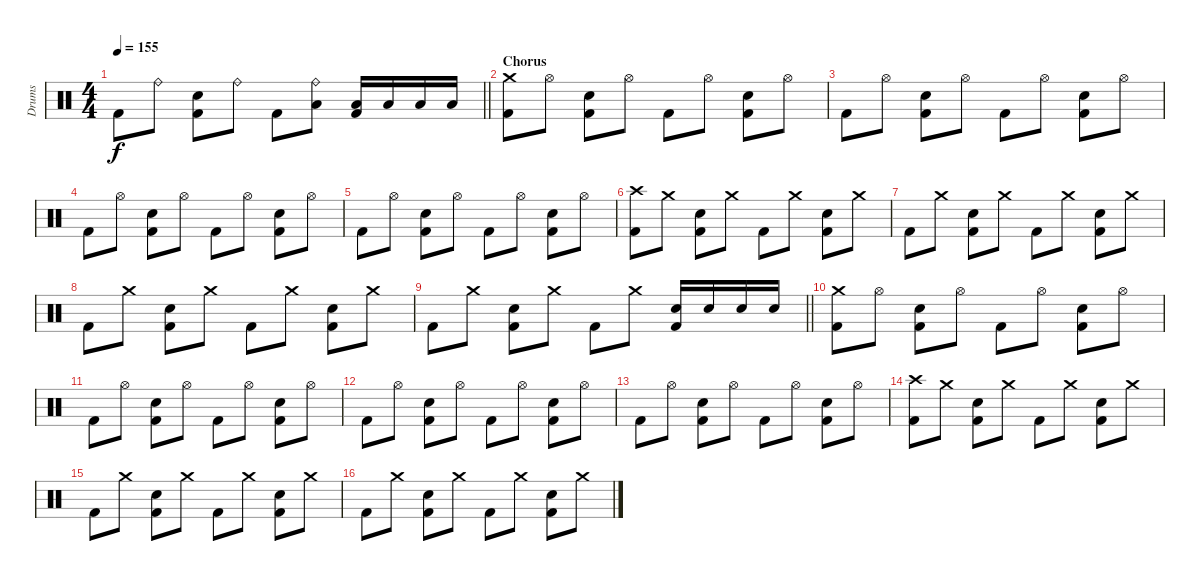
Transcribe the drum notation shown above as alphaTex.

\track ("Drums" "Drums") {instrument percussion}
\staff {score}
\articulation defaults
\ts (4 4)
\tempo 155
\clef neutral
\barLineRight lightlight
\ks c "Kick (hit) 2".8{dy f} "Ride (bell)".8
("Electric Snare (hit)" "Kick (hit) 2").8 "Ride (bell)".8 "Kick (hit) 2".8 ("Ride (bell)" "Low Floor Tom (hit)").8 ("Low Floor Tom (hit)" "Kick (hit) 2").16 "Low Floor Tom (hit)".16 "Low Floor Tom (hit)".16 "Low Floor Tom (hit)".16 |
\section ("" "Chorus")
("Crash medium (hit)" "Kick (hit) 2").8 "Hi-Hat (open)".8 ("Electric Snare (hit)" "Kick (hit) 2").8 "Hi-Hat (open)".8 "Kick (hit) 2".8 "Hi-Hat (open)".8 ("Electric Snare (hit)" "Kick (hit) 2").8 "Hi-Hat (open)".8 |
"Kick (hit) 2".8 "Hi-Hat (open)".8 ("Electric Snare (hit)" "Kick (hit) 2").8 "Hi-Hat (open)".8 "Kick (hit) 2".8 "Hi-Hat (open)".8 ("Electric Snare (hit)" "Kick (hit) 2").8 "Hi-Hat (open)".8 |
"Kick (hit) 2".8 "Hi-Hat (open)".8 ("Electric Snare (hit)" "Kick (hit) 2").8 "Hi-Hat (open)".8 "Kick (hit) 2".8 "Hi-Hat (open)".8 ("Electric Snare (hit)" "Kick (hit) 2").8 "Hi-Hat (open)".8 |
"Kick (hit) 2".8 "Hi-Hat (open)".8 ("Electric Snare (hit)" "Kick (hit) 2").8 "Hi-Hat (open)".8 "Kick (hit) 2".8 "Hi-Hat (open)".8 ("Electric Snare (hit)" "Kick (hit) 2").8 "Hi-Hat (open)".8 |
("Crash high (hit)" "Kick (hit) 2").8 "Crash medium (hit)".8 ("Electric Snare (hit)" "Kick (hit) 2").8 "Crash medium (hit)".8 "Kick (hit) 2".8 "Crash medium (hit)".8 ("Electric Snare (hit)" "Kick (hit) 2").8 "Crash medium (hit)".8 |
"Kick (hit) 2".8 "Crash medium (hit)".8 ("Electric Snare (hit)" "Kick (hit) 2").8 "Crash medium (hit)".8 "Kick (hit) 2".8 "Crash medium (hit)".8 ("Electric Snare (hit)" "Kick (hit) 2").8 "Crash medium (hit)".8 |
"Kick (hit) 2".8 "Crash medium (hit)".8 ("Electric Snare (hit)" "Kick (hit) 2").8 "Crash medium (hit)".8 "Kick (hit) 2".8 "Crash medium (hit)".8 ("Electric Snare (hit)" "Kick (hit) 2").8 "Crash medium (hit)".8 |
\barLineRight lightlight "Kick (hit) 2".8 "Crash medium (hit)".8
("Electric Snare (hit)" "Kick (hit) 2").8 "Crash medium (hit)".8 "Kick (hit) 2".8 "Crash medium (hit)".8 ("Electric Snare (hit)" "Kick (hit) 2").16 "Electric Snare (hit)".16 "Electric Snare (hit)".16 "Electric Snare (hit)".16 |
("Crash medium (hit)" "Kick (hit) 2").8 "Hi-Hat (open)".8 ("Electric Snare (hit)" "Kick (hit) 2").8 "Hi-Hat (open)".8 "Kick (hit) 2".8 "Hi-Hat (open)".8 ("Electric Snare (hit)" "Kick (hit) 2").8 "Hi-Hat (open)".8 |
"Kick (hit) 2".8 "Hi-Hat (open)".8 ("Electric Snare (hit)" "Kick (hit) 2").8 "Hi-Hat (open)".8 "Kick (hit) 2".8 "Hi-Hat (open)".8 ("Electric Snare (hit)" "Kick (hit) 2").8 "Hi-Hat (open)".8 |
"Kick (hit) 2".8 "Hi-Hat (open)".8 ("Electric Snare (hit)" "Kick (hit) 2").8 "Hi-Hat (open)".8 "Kick (hit) 2".8 "Hi-Hat (open)".8 ("Electric Snare (hit)" "Kick (hit) 2").8 "Hi-Hat (open)".8 |
"Kick (hit) 2".8 "Hi-Hat (open)".8 ("Electric Snare (hit)" "Kick (hit) 2").8 "Hi-Hat (open)".8 "Kick (hit) 2".8 "Hi-Hat (open)".8 ("Electric Snare (hit)" "Kick (hit) 2").8 "Hi-Hat (open)".8 |
("Crash high (hit)" "Kick (hit) 2").8 "Crash medium (hit)".8 ("Electric Snare (hit)" "Kick (hit) 2").8 "Crash medium (hit)".8 "Kick (hit) 2".8 "Crash medium (hit)".8 ("Electric Snare (hit)" "Kick (hit) 2").8 "Crash medium (hit)".8 |
"Kick (hit) 2".8 "Crash medium (hit)".8 ("Electric Snare (hit)" "Kick (hit) 2").8 "Crash medium (hit)".8 "Kick (hit) 2".8 "Crash medium (hit)".8 ("Electric Snare (hit)" "Kick (hit) 2").8 "Crash medium (hit)".8 |
"Kick (hit) 2".8 "Crash medium (hit)".8 ("Electric Snare (hit)" "Kick (hit) 2").8 "Crash medium (hit)".8 "Kick (hit) 2".8 "Crash medium (hit)".8 ("Electric Snare (hit)" "Kick (hit) 2").8 "Crash medium (hit)".8
